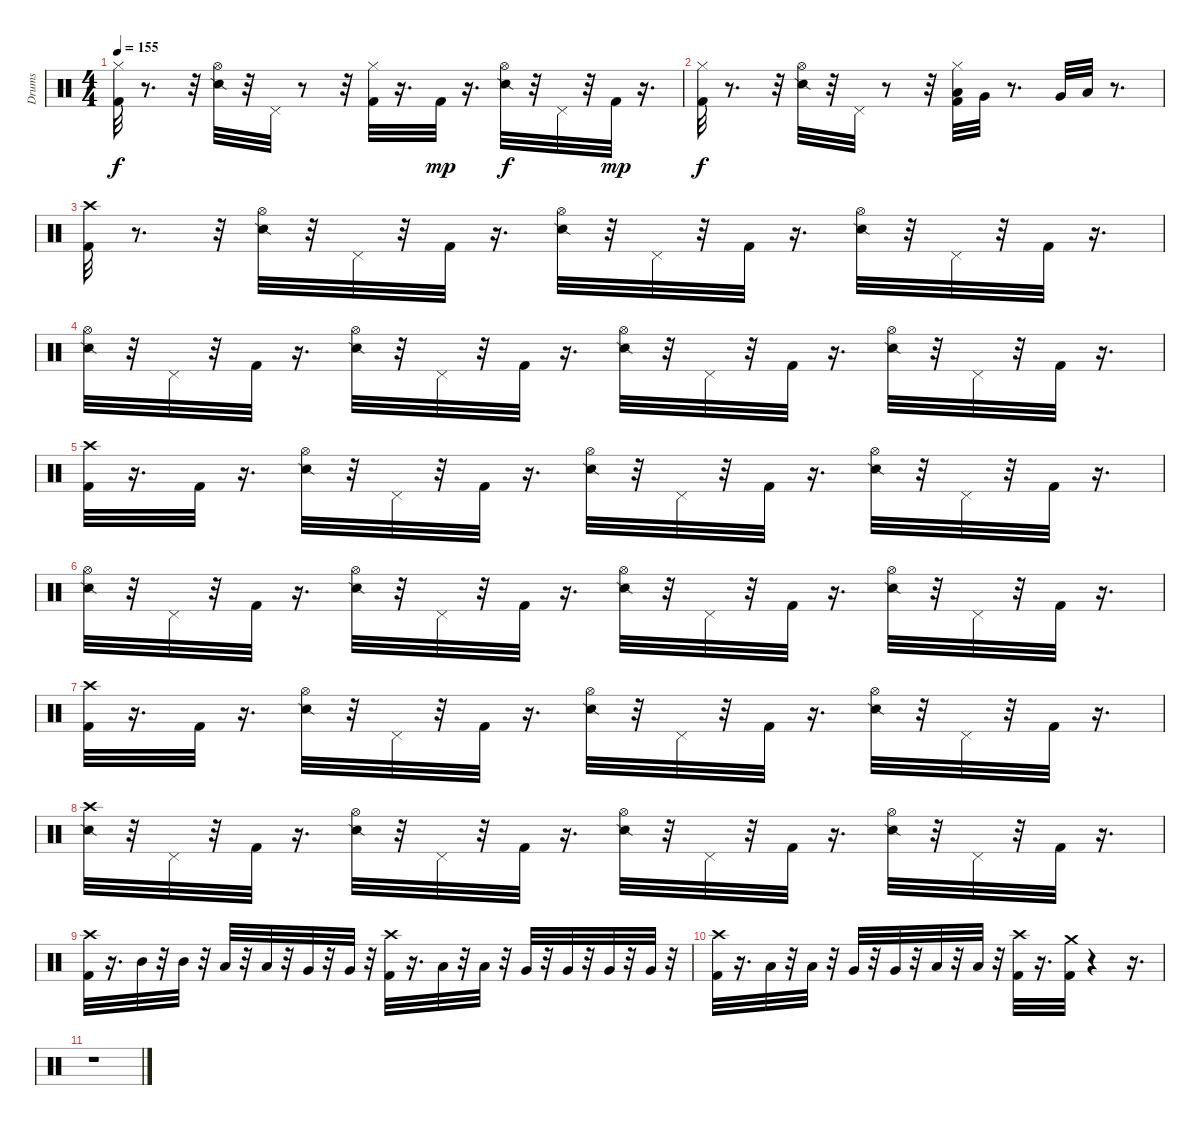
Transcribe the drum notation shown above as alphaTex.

\track ("Drums" "Drums") {instrument percussion}
\staff {score}
\articulation defaults
\ts (4 4)
\tempo 155
\clef neutral
\ks c
("Hi-Hat (closed)" "Kick (hit) 2").32{dy f} r.8{d} r.32 ("Hi-Hat (open)" "Snare (side stick) 2").32 r.32 "Pedal Hi-Hat (hit)".32 r.8 r.32 ("Hi-Hat (closed)" "Kick (hit) 2").32 r.16{d} "Kick (hit) 2".32{dy mp} r.16{d} ("Hi-Hat (open)" "Snare (side stick) 2").32{dy f} r.32 "Pedal Hi-Hat (hit)".32 r.32 "Kick (hit) 2".32{dy mp} r.16{d} |
("Kick (hit) 2" "Hi-Hat (closed)").32{dy f} r.8{d} r.32 ("Hi-Hat (open)" "Snare (side stick) 2").32 r.32 "Pedal Hi-Hat (hit)".32 r.8 r.32 ("Hi-Hat (closed)" "Low Tom (hit)" "Kick (hit) 2").32 "Very Low Tom (hit)".32 r.8{d} "Very Low Tom (hit)".32 "Low Floor Tom (hit)".32 r.8{d} |
("Kick (hit) 2" "Crash high (hit)").32 r.8{d} r.32 ("Hi-Hat (open)" "Snare (side stick) 2").32 r.32 "Pedal Hi-Hat (hit)".32 r.32 "Kick (hit) 2".32 r.16{d} ("Hi-Hat (open)" "Snare (side stick) 2").32 r.32 "Pedal Hi-Hat (hit)".32 r.32 "Kick (hit) 2".32 r.16{d} ("Hi-Hat (open)" "Snare (side stick) 2").32 r.32 "Pedal Hi-Hat (hit)".32 r.32 "Kick (hit) 2".32 r.16{d} |
("Hi-Hat (open)" "Snare (side stick) 2").32 r.32 "Pedal Hi-Hat (hit)".32 r.32 "Kick (hit) 2".32 r.16{d} ("Hi-Hat (open)" "Snare (side stick) 2").32 r.32 "Pedal Hi-Hat (hit)".32 r.32 "Kick (hit) 2".32 r.16{d} ("Hi-Hat (open)" "Snare (side stick) 2").32 r.32 "Pedal Hi-Hat (hit)".32 r.32 "Kick (hit) 2".32 r.16{d} ("Hi-Hat (open)" "Snare (side stick) 2").32 r.32 "Pedal Hi-Hat (hit)".32 r.32 "Kick (hit) 2".32 r.16{d} |
("Kick (hit) 2" "Crash high (hit)").32 r.16{d} "Kick (hit) 2".32 r.16{d} ("Hi-Hat (open)" "Snare (side stick) 2").32 r.32 "Pedal Hi-Hat (hit)".32 r.32 "Kick (hit) 2".32 r.16{d} ("Hi-Hat (open)" "Snare (side stick) 2").32 r.32 "Pedal Hi-Hat (hit)".32 r.32 "Kick (hit) 2".32 r.16{d} ("Hi-Hat (open)" "Snare (side stick) 2").32 r.32 "Pedal Hi-Hat (hit)".32 r.32 "Kick (hit) 2".32 r.16{d} |
("Hi-Hat (open)" "Snare (side stick) 2").32 r.32 "Pedal Hi-Hat (hit)".32 r.32 "Kick (hit) 2".32 r.16{d} ("Hi-Hat (open)" "Snare (side stick) 2").32 r.32 "Pedal Hi-Hat (hit)".32 r.32 "Kick (hit) 2".32 r.16{d} ("Hi-Hat (open)" "Snare (side stick) 2").32 r.32 "Pedal Hi-Hat (hit)".32 r.32 "Kick (hit) 2".32 r.16{d} ("Hi-Hat (open)" "Snare (side stick) 2").32 r.32 "Pedal Hi-Hat (hit)".32 r.32 "Kick (hit) 2".32 r.16{d} |
("Kick (hit) 2" "Crash high (hit)").32 r.16{d} "Kick (hit) 2".32 r.16{d} ("Hi-Hat (open)" "Snare (side stick) 2").32 r.32 "Pedal Hi-Hat (hit)".32 r.32 "Kick (hit) 2".32 r.16{d} ("Hi-Hat (open)" "Snare (side stick) 2").32 r.32 "Pedal Hi-Hat (hit)".32 r.32 "Kick (hit) 2".32 r.16{d} ("Hi-Hat (open)" "Snare (side stick) 2").32 r.32 "Pedal Hi-Hat (hit)".32 r.32 "Kick (hit) 2".32 r.16{d} |
("Crash high (hit)" "Snare (side stick) 2").32 r.32 "Pedal Hi-Hat (hit)".32 r.32 "Kick (hit) 2".32 r.16{d} ("Hi-Hat (open)" "Snare (side stick) 2").32 r.32 "Pedal Hi-Hat (hit)".32 r.32 "Kick (hit) 2".32 r.16{d} ("Hi-Hat (open)" "Snare (side stick) 2").32 r.32 "Pedal Hi-Hat (hit)".32 r.32 "Kick (hit) 2".32 r.16{d} ("Hi-Hat (open)" "Snare (side stick) 2").32 r.32 "Pedal Hi-Hat (hit)".32 r.32 "Kick (hit) 2".32 r.16{d} |
("Kick (hit) 2" "Crash high (hit)").32 r.16{d} "Mid Tom (hit)".32 r.32 "Mid Tom (hit)".32 r.32 "Low Tom (hit)".32 r.32 "Low Tom (hit)".32 r.32 "Very Low Tom (hit)".32 r.32 "Very Low Tom (hit)".32 r.32 ("Kick (hit) 2" "Crash high (hit)").32 r.16{d} "Low Tom (hit)".32 r.32 "Low Tom (hit)".32 r.32 "Very Low Tom (hit)".32 r.32 "Very Low Tom (hit)".32 r.32 "Very Low Tom (hit)".32 r.32 "Very Low Tom (hit)".32 r.32 |
("Kick (hit) 2" "Crash high (hit)").32 r.16{d} "Low Tom (hit)".32 r.32 "Low Tom (hit)".32 r.32 "Very Low Tom (hit)".32 r.32 "Very Low Tom (hit)".32 r.32 "Low Floor Tom (hit)".32 r.32 "Low Floor Tom (hit)".32 r.32 ("Crash high (hit)" "Kick (hit) 2").32 r.16{d} ("Crash medium (hit)" "Kick (hit) 2").32 r.4 r.16{d} |
r.1
